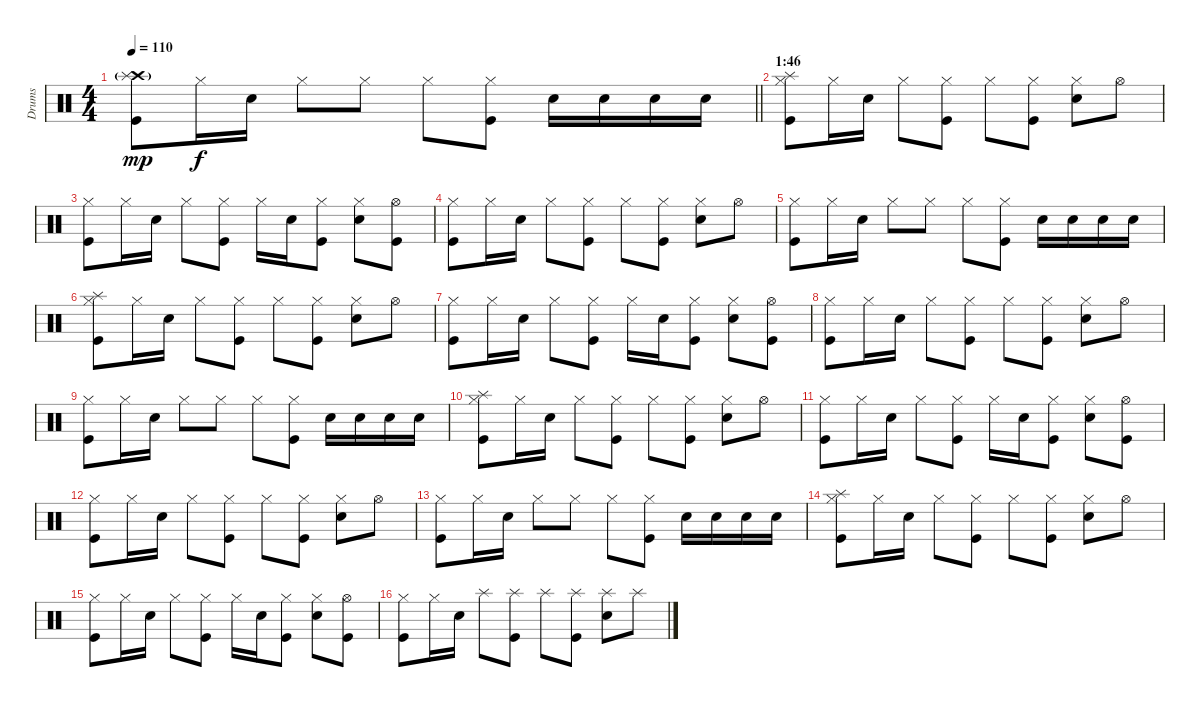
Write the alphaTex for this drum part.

\track ("Drums" "Drums") {instrument percussion}
\staff {score}
\articulation defaults
\ts (4 4)
\tempo 110
\clef neutral
\barLineRight lightlight
\ks c
("Crash high (hit)"{g} "Splash (hit)" "Kick (hit)").8{dy mp} "Hi-Hat (closed)".16{dy f} "Snare (hit) 2".16 "Hi-Hat (closed)".8 "Hi-Hat (closed)".8 "Hi-Hat (closed)".8 ("Hi-Hat (closed)" "Kick (hit)").8 "Snare (hit) 2".16 "Snare (hit) 2".16 "Snare (hit) 2".16 "Snare (hit) 2".16 |
\section ("" "1:46")
("Splash (hit)" "Hi-Hat (closed)" "Kick (hit)").8 "Hi-Hat (closed)".16 "Snare (hit) 2".16 "Hi-Hat (closed)".8 ("Hi-Hat (closed)" "Kick (hit)").8 "Hi-Hat (closed)".8 ("Hi-Hat (closed)" "Kick (hit)").8 ("Hi-Hat (closed)" "Snare (hit) 2").8 "Hi-Hat (open)".8 |
("Hi-Hat (closed)" "Kick (hit)").8 "Hi-Hat (closed)".16 "Snare (hit) 2".16 "Hi-Hat (closed)".8 ("Hi-Hat (closed)" "Kick (hit)").8 "Hi-Hat (closed)".16 "Snare (hit) 2".16 ("Hi-Hat (closed)" "Kick (hit)").8 ("Hi-Hat (closed)" "Snare (hit) 2").8 ("Hi-Hat (open)" "Kick (hit)").8 |
("Hi-Hat (closed)" "Kick (hit)").8 "Hi-Hat (closed)".16 "Snare (hit) 2".16 "Hi-Hat (closed)".8 ("Hi-Hat (closed)" "Kick (hit)").8 "Hi-Hat (closed)".8 ("Hi-Hat (closed)" "Kick (hit)").8 ("Hi-Hat (closed)" "Snare (hit) 2").8 "Hi-Hat (open)".8 |
("Hi-Hat (closed)" "Kick (hit)").8 "Hi-Hat (closed)".16 "Snare (hit) 2".16 "Hi-Hat (closed)".8 "Hi-Hat (closed)".8 "Hi-Hat (closed)".8 ("Hi-Hat (closed)" "Kick (hit)").8 "Snare (hit) 2".16 "Snare (hit) 2".16 "Snare (hit) 2".16 "Snare (hit) 2".16 |
("Splash (hit)" "Hi-Hat (closed)" "Kick (hit)").8 "Hi-Hat (closed)".16 "Snare (hit) 2".16 "Hi-Hat (closed)".8 ("Hi-Hat (closed)" "Kick (hit)").8 "Hi-Hat (closed)".8 ("Hi-Hat (closed)" "Kick (hit)").8 ("Hi-Hat (closed)" "Snare (hit) 2").8 "Hi-Hat (open)".8 |
("Hi-Hat (closed)" "Kick (hit)").8 "Hi-Hat (closed)".16 "Snare (hit) 2".16 "Hi-Hat (closed)".8 ("Hi-Hat (closed)" "Kick (hit)").8 "Hi-Hat (closed)".16 "Snare (hit) 2".16 ("Hi-Hat (closed)" "Kick (hit)").8 ("Hi-Hat (closed)" "Snare (hit) 2").8 ("Hi-Hat (open)" "Kick (hit)").8 |
("Hi-Hat (closed)" "Kick (hit)").8 "Hi-Hat (closed)".16 "Snare (hit) 2".16 "Hi-Hat (closed)".8 ("Hi-Hat (closed)" "Kick (hit)").8 "Hi-Hat (closed)".8 ("Hi-Hat (closed)" "Kick (hit)").8 ("Hi-Hat (closed)" "Snare (hit) 2").8 "Hi-Hat (open)".8 |
("Hi-Hat (closed)" "Kick (hit)").8 "Hi-Hat (closed)".16 "Snare (hit) 2".16 "Hi-Hat (closed)".8 "Hi-Hat (closed)".8 "Hi-Hat (closed)".8 ("Hi-Hat (closed)" "Kick (hit)").8 "Snare (hit) 2".16 "Snare (hit) 2".16 "Snare (hit) 2".16 "Snare (hit) 2".16 |
("Splash (hit)" "Hi-Hat (closed)" "Kick (hit)").8 "Hi-Hat (closed)".16 "Snare (hit) 2".16 "Hi-Hat (closed)".8 ("Hi-Hat (closed)" "Kick (hit)").8 "Hi-Hat (closed)".8 ("Hi-Hat (closed)" "Kick (hit)").8 ("Hi-Hat (closed)" "Snare (hit) 2").8 "Hi-Hat (open)".8 |
("Hi-Hat (closed)" "Kick (hit)").8 "Hi-Hat (closed)".16 "Snare (hit) 2".16 "Hi-Hat (closed)".8 ("Hi-Hat (closed)" "Kick (hit)").8 "Hi-Hat (closed)".16 "Snare (hit) 2".16 ("Hi-Hat (closed)" "Kick (hit)").8 ("Hi-Hat (closed)" "Snare (hit) 2").8 ("Hi-Hat (open)" "Kick (hit)").8 |
("Hi-Hat (closed)" "Kick (hit)").8 "Hi-Hat (closed)".16 "Snare (hit) 2".16 "Hi-Hat (closed)".8 ("Hi-Hat (closed)" "Kick (hit)").8 "Hi-Hat (closed)".8 ("Hi-Hat (closed)" "Kick (hit)").8 ("Hi-Hat (closed)" "Snare (hit) 2").8 "Hi-Hat (open)".8 |
("Hi-Hat (closed)" "Kick (hit)").8 "Hi-Hat (closed)".16 "Snare (hit) 2".16 "Hi-Hat (closed)".8 "Hi-Hat (closed)".8 "Hi-Hat (closed)".8 ("Hi-Hat (closed)" "Kick (hit)").8 "Snare (hit) 2".16 "Snare (hit) 2".16 "Snare (hit) 2".16 "Snare (hit) 2".16 |
("Splash (hit)" "Hi-Hat (closed)" "Kick (hit)").8 "Hi-Hat (closed)".16 "Snare (hit) 2".16 "Hi-Hat (closed)".8 ("Hi-Hat (closed)" "Kick (hit)").8 "Hi-Hat (closed)".8 ("Hi-Hat (closed)" "Kick (hit)").8 ("Hi-Hat (closed)" "Snare (hit) 2").8 "Hi-Hat (open)".8 |
("Hi-Hat (closed)" "Kick (hit)").8 "Hi-Hat (closed)".16 "Snare (hit) 2".16 "Hi-Hat (closed)".8 ("Hi-Hat (closed)" "Kick (hit)").8 "Hi-Hat (closed)".16 "Snare (hit) 2".16 ("Hi-Hat (closed)" "Kick (hit)").8 ("Hi-Hat (closed)" "Snare (hit) 2").8 ("Hi-Hat (open)" "Kick (hit)").8 |
("Hi-Hat (closed)" "Kick (hit)").8 "Hi-Hat (closed)".16 "Snare (hit) 2".16 "Splash (hit)".8 ("Splash (hit)" "Kick (hit)").8 "Splash (hit)".8 ("Splash (hit)" "Kick (hit)").8 ("Splash (hit)" "Snare (hit) 2").8 "Splash (hit)".8
